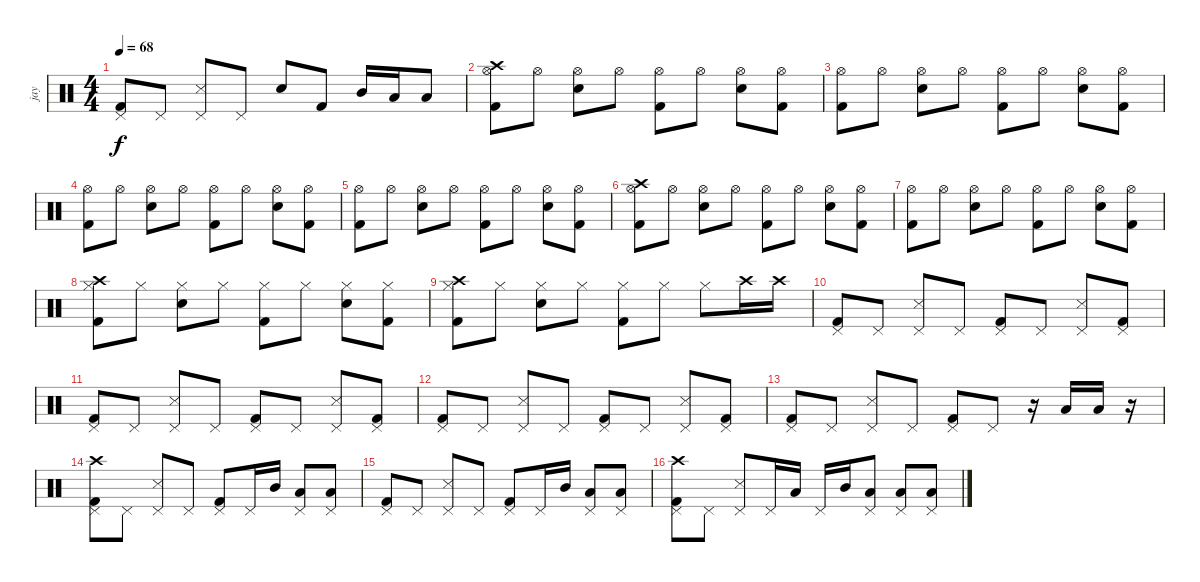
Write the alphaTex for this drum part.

\track ("jay" "jay") {instrument percussion}
\staff {score}
\articulation defaults
\ts (4 4)
\tempo 68
\clef neutral
\ks c
("Kick (hit) 2" "Pedal Hi-Hat (hit)").8{dy f} "Pedal Hi-Hat (hit)".8 ("Snare (side stick) 3" "Pedal Hi-Hat (hit)").8 "Pedal Hi-Hat (hit)".8 "Snare (hit) 2".8 "Kick (hit) 2".8 "Mid Tom (hit)".16 "Low Tom (hit)".16 "Low Floor Tom (hit)".8 |
("Crash high (hit)" "Kick (hit) 2" "Hi-Hat (open)").8 "Hi-Hat (open)".8 ("Snare (hit) 2" "Hi-Hat (open)").8 "Hi-Hat (open)".8 ("Kick (hit) 2" "Hi-Hat (open)").8 "Hi-Hat (open)".8 ("Snare (hit) 2" "Hi-Hat (open)").8 ("Kick (hit) 2" "Hi-Hat (open)").8 |
("Kick (hit) 2" "Hi-Hat (open)").8 "Hi-Hat (open)".8 ("Snare (hit) 2" "Hi-Hat (open)").8 "Hi-Hat (open)".8 ("Kick (hit) 2" "Hi-Hat (open)").8 "Hi-Hat (open)".8 ("Snare (hit) 2" "Hi-Hat (open)").8 ("Kick (hit) 2" "Hi-Hat (open)").8 |
("Kick (hit) 2" "Hi-Hat (open)").8 "Hi-Hat (open)".8 ("Snare (hit) 2" "Hi-Hat (open)").8 "Hi-Hat (open)".8 ("Kick (hit) 2" "Hi-Hat (open)").8 "Hi-Hat (open)".8 ("Snare (hit) 2" "Hi-Hat (open)").8 ("Kick (hit) 2" "Hi-Hat (open)").8 |
("Kick (hit) 2" "Hi-Hat (open)").8 "Hi-Hat (open)".8 ("Snare (hit) 2" "Hi-Hat (open)").8 "Hi-Hat (open)".8 ("Kick (hit) 2" "Hi-Hat (open)").8 "Hi-Hat (open)".8 ("Snare (hit) 2" "Hi-Hat (open)").8 ("Kick (hit) 2" "Hi-Hat (open)").8 |
("Crash high (hit)" "Kick (hit) 2" "Hi-Hat (open)").8 "Hi-Hat (open)".8 ("Snare (hit) 2" "Hi-Hat (open)").8 "Hi-Hat (open)".8 ("Kick (hit) 2" "Hi-Hat (open)").8 "Hi-Hat (open)".8 ("Snare (hit) 2" "Hi-Hat (open)").8 ("Kick (hit) 2" "Hi-Hat (open)").8 |
("Kick (hit) 2" "Hi-Hat (open)").8 "Hi-Hat (open)".8 ("Snare (hit) 2" "Hi-Hat (open)").8 "Hi-Hat (open)".8 ("Kick (hit) 2" "Hi-Hat (open)").8 "Hi-Hat (open)".8 ("Snare (hit) 2" "Hi-Hat (open)").8 ("Kick (hit) 2" "Hi-Hat (open)").8 |
("Crash high (hit)" "Kick (hit) 2" "Hi-Hat (closed)").8 "Hi-Hat (closed)".8 ("Snare (hit) 2" "Hi-Hat (closed)").8 "Hi-Hat (closed)".8 ("Kick (hit) 2" "Hi-Hat (closed)").8 "Hi-Hat (closed)".8 ("Snare (hit) 2" "Hi-Hat (closed)").8 ("Kick (hit) 2" "Hi-Hat (closed)").8 |
("Crash high (hit)" "Kick (hit) 2" "Hi-Hat (closed)").8 "Hi-Hat (closed)".8 ("Snare (hit) 2" "Hi-Hat (closed)").8 "Hi-Hat (closed)".8 ("Kick (hit) 2" "Hi-Hat (closed)").8 "Hi-Hat (closed)".8 "Hi-Hat (closed)".8 "Crash high (hit)".16 "Crash high (hit)".16 |
("Kick (hit) 2" "Pedal Hi-Hat (hit)").8 "Pedal Hi-Hat (hit)".8 ("Snare (side stick) 3" "Pedal Hi-Hat (hit)").8 "Pedal Hi-Hat (hit)".8 ("Kick (hit) 2" "Pedal Hi-Hat (hit)").8 "Pedal Hi-Hat (hit)".8 ("Snare (side stick) 3" "Pedal Hi-Hat (hit)").8 ("Kick (hit) 2" "Pedal Hi-Hat (hit)").8 |
("Kick (hit) 2" "Pedal Hi-Hat (hit)").8 "Pedal Hi-Hat (hit)".8 ("Snare (side stick) 3" "Pedal Hi-Hat (hit)").8 "Pedal Hi-Hat (hit)".8 ("Kick (hit) 2" "Pedal Hi-Hat (hit)").8 "Pedal Hi-Hat (hit)".8 ("Snare (side stick) 3" "Pedal Hi-Hat (hit)").8 ("Kick (hit) 2" "Pedal Hi-Hat (hit)").8 |
("Kick (hit) 2" "Pedal Hi-Hat (hit)").8 "Pedal Hi-Hat (hit)".8 ("Snare (side stick) 3" "Pedal Hi-Hat (hit)").8 "Pedal Hi-Hat (hit)".8 ("Kick (hit) 2" "Pedal Hi-Hat (hit)").8 "Pedal Hi-Hat (hit)".8 ("Snare (side stick) 3" "Pedal Hi-Hat (hit)").8 ("Kick (hit) 2" "Pedal Hi-Hat (hit)").8 |
("Kick (hit) 2" "Pedal Hi-Hat (hit)").8 "Pedal Hi-Hat (hit)".8 ("Snare (side stick) 3" "Pedal Hi-Hat (hit)").8 "Pedal Hi-Hat (hit)".8 ("Kick (hit) 2" "Pedal Hi-Hat (hit)").8 "Pedal Hi-Hat (hit)".8 r.16 "Low Tom (hit)".16 "Low Floor Tom (hit)".16 r.16 |
("Crash high (hit)" "Kick (hit) 2" "Pedal Hi-Hat (hit)").8 "Pedal Hi-Hat (hit)".8 ("Snare (side stick) 3" "Pedal Hi-Hat (hit)").8 "Pedal Hi-Hat (hit)".8 ("Kick (hit) 2" "Pedal Hi-Hat (hit)").8 "Pedal Hi-Hat (hit)".16 "Mid Tom (hit)".16 ("Low Tom (hit)" "Pedal Hi-Hat (hit)").8 ("Low Floor Tom (hit)" "Pedal Hi-Hat (hit)").8 |
("Kick (hit) 2" "Pedal Hi-Hat (hit)").8 "Pedal Hi-Hat (hit)".8 ("Snare (side stick) 3" "Pedal Hi-Hat (hit)").8 "Pedal Hi-Hat (hit)".8 ("Kick (hit) 2" "Pedal Hi-Hat (hit)").8 "Pedal Hi-Hat (hit)".16 "Mid Tom (hit)".16 ("Low Tom (hit)" "Pedal Hi-Hat (hit)").8 ("Low Floor Tom (hit)" "Pedal Hi-Hat (hit)").8 |
("Crash high (hit)" "Kick (hit) 2" "Pedal Hi-Hat (hit)").8 "Pedal Hi-Hat (hit)".8 ("Snare (side stick) 3" "Pedal Hi-Hat (hit)").8 "Pedal Hi-Hat (hit)".16 "Low Floor Tom (hit)".16 "Pedal Hi-Hat (hit)".16 "Mid Tom (hit)".16 ("Low Tom (hit)" "Pedal Hi-Hat (hit)").8 ("Low Floor Tom (hit)" "Pedal Hi-Hat (hit)").8 ("Low Floor Tom (hit)" "Pedal Hi-Hat (hit)").8
